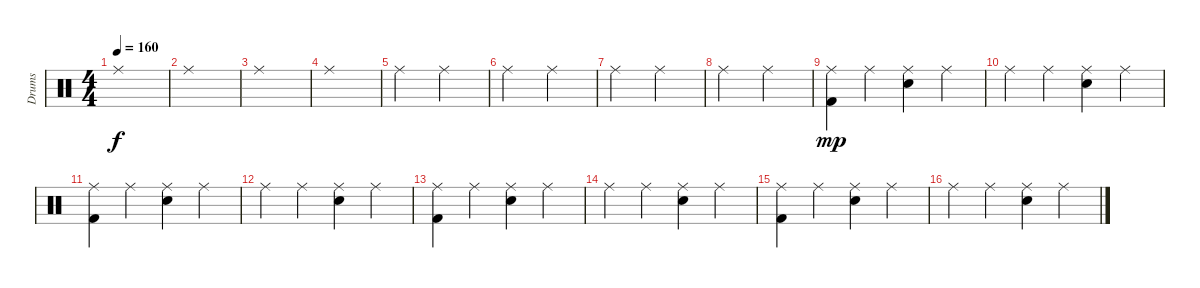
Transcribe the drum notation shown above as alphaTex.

\track ("Drums" "Drums") {instrument percussion}
\staff {score}
\articulation defaults
\ts (4 4)
\tempo 160
\clef neutral
\ks c "Ride (middle)".1{dy f}
|
"Ride (middle)".1 |
"Ride (middle)".1 |
"Ride (middle)".1 |
"Ride (middle)".2 "Ride (middle)".2 |
"Ride (middle)".2 "Ride (middle)".2 |
"Ride (middle)".2 "Ride (middle)".2 |
"Ride (middle)".2 "Ride (middle)".2 |
("Kick (hit) 2" "Ride (middle)").4{dy mp} "Ride (middle)".4 ("Snare (hit) 2" "Ride (middle)").4 "Ride (middle)".4 |
"Ride (middle)".4 "Ride (middle)".4 ("Snare (hit) 2" "Ride (middle)").4 "Ride (middle)".4 |
("Kick (hit) 2" "Ride (middle)").4 "Ride (middle)".4 ("Snare (hit) 2" "Ride (middle)").4 "Ride (middle)".4 |
"Ride (middle)".4 "Ride (middle)".4 ("Snare (hit) 2" "Ride (middle)").4 "Ride (middle)".4 |
("Kick (hit) 2" "Ride (middle)").4 "Ride (middle)".4 ("Snare (hit) 2" "Ride (middle)").4 "Ride (middle)".4 |
"Ride (middle)".4 "Ride (middle)".4 ("Snare (hit) 2" "Ride (middle)").4 "Ride (middle)".4 |
("Kick (hit) 2" "Ride (middle)").4 "Ride (middle)".4 ("Snare (hit) 2" "Ride (middle)").4 "Ride (middle)".4 |
"Ride (middle)".4 "Ride (middle)".4 ("Snare (hit) 2" "Ride (middle)").4 "Ride (middle)".4
